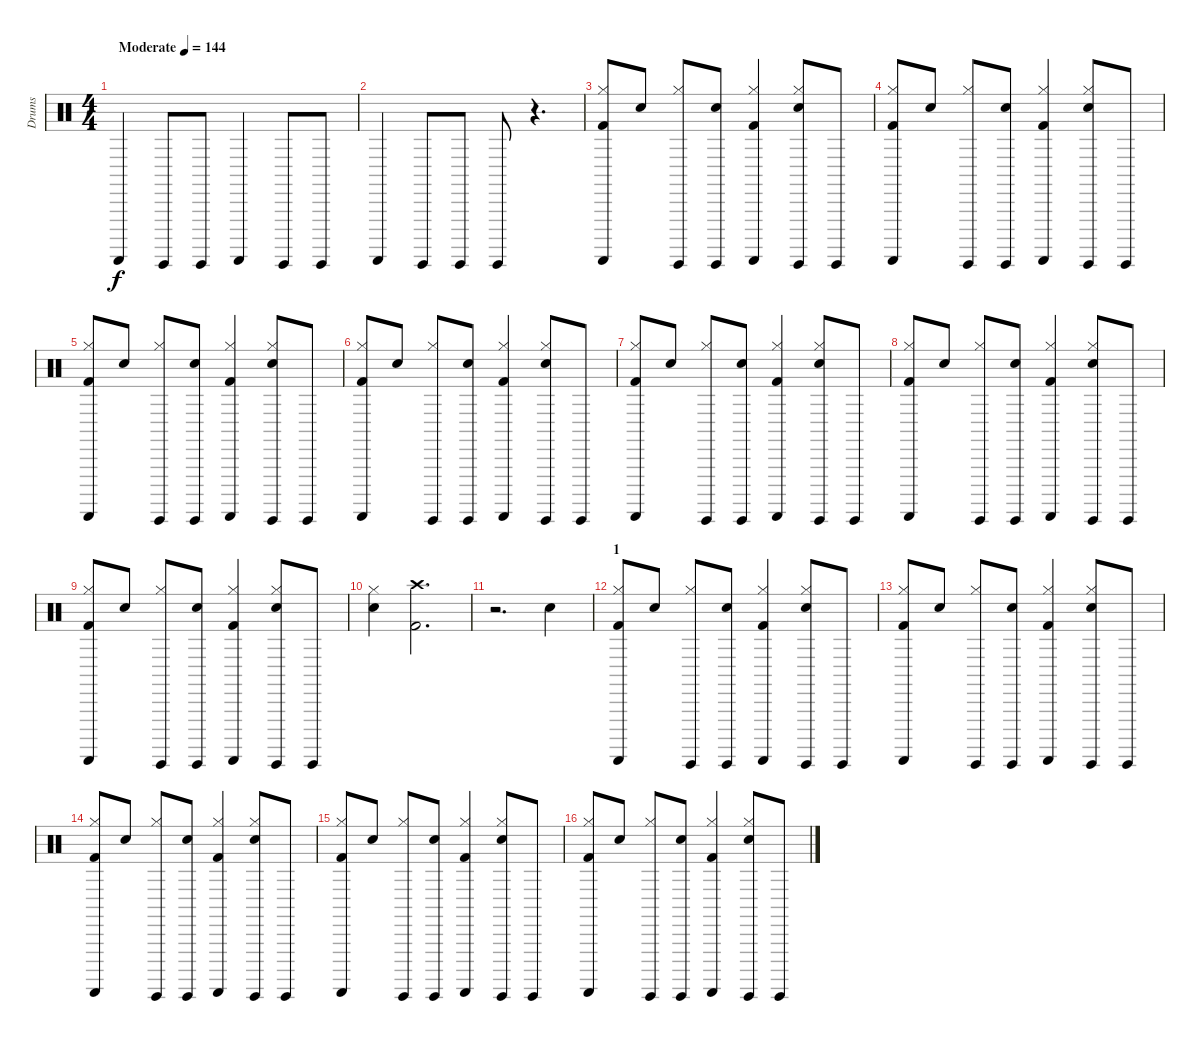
\track ("Drums" "Drums") {instrument percussion}
\staff {score}
\articulation defaults
\ts (4 4)
\tempo (144 "Moderate")
\clef neutral
\ks c "Guiro (scrap-return)".4{dy f} "Guiro (hit)".8 "Guiro (hit)".8 "Guiro (scrap-return)".4 "Guiro (hit)".8 "Guiro (hit)".8
|
"Guiro (scrap-return)".4 "Guiro (hit)".8 "Guiro (hit)".8 "Guiro (hit)".8 r.4{d} |
("Kick (hit) 2" "Guiro (scrap-return)" "Hi-Hat (closed)").8 "Electric Snare (hit)".8 ("Hi-Hat (closed)" "Guiro (hit)").8 ("Electric Snare (hit)" "Guiro (hit)").8 ("Hi-Hat (closed)" "Guiro (scrap-return)" "Kick (hit) 2").4 ("Guiro (hit)" "Electric Snare (hit)" "Hi-Hat (closed)").8 "Guiro (hit)".8 |
("Kick (hit) 2" "Guiro (scrap-return)" "Hi-Hat (closed)").8 "Electric Snare (hit)".8 ("Hi-Hat (closed)" "Guiro (hit)").8 ("Electric Snare (hit)" "Guiro (hit)").8 ("Hi-Hat (closed)" "Guiro (scrap-return)" "Kick (hit) 2").4 ("Guiro (hit)" "Electric Snare (hit)" "Hi-Hat (closed)").8 "Guiro (hit)".8 |
("Kick (hit) 2" "Guiro (scrap-return)" "Hi-Hat (closed)").8 "Electric Snare (hit)".8 ("Hi-Hat (closed)" "Guiro (hit)").8 ("Electric Snare (hit)" "Guiro (hit)").8 ("Hi-Hat (closed)" "Guiro (scrap-return)" "Kick (hit) 2").4 ("Guiro (hit)" "Electric Snare (hit)" "Hi-Hat (closed)").8 "Guiro (hit)".8 |
("Kick (hit) 2" "Guiro (scrap-return)" "Hi-Hat (closed)").8 "Electric Snare (hit)".8 ("Hi-Hat (closed)" "Guiro (hit)").8 ("Electric Snare (hit)" "Guiro (hit)").8 ("Hi-Hat (closed)" "Guiro (scrap-return)" "Kick (hit) 2").4 ("Guiro (hit)" "Electric Snare (hit)" "Hi-Hat (closed)").8 "Guiro (hit)".8 |
("Kick (hit) 2" "Guiro (scrap-return)" "Hi-Hat (closed)").8 "Electric Snare (hit)".8 ("Hi-Hat (closed)" "Guiro (hit)").8 ("Electric Snare (hit)" "Guiro (hit)").8 ("Hi-Hat (closed)" "Guiro (scrap-return)" "Kick (hit) 2").4 ("Guiro (hit)" "Electric Snare (hit)" "Hi-Hat (closed)").8 "Guiro (hit)".8 |
("Kick (hit) 2" "Guiro (scrap-return)" "Hi-Hat (closed)").8 "Electric Snare (hit)".8 ("Hi-Hat (closed)" "Guiro (hit)").8 ("Electric Snare (hit)" "Guiro (hit)").8 ("Hi-Hat (closed)" "Guiro (scrap-return)" "Kick (hit) 2").4 ("Guiro (hit)" "Electric Snare (hit)" "Hi-Hat (closed)").8 "Guiro (hit)".8 |
("Kick (hit) 2" "Guiro (scrap-return)" "Hi-Hat (closed)").8 "Electric Snare (hit)".8 ("Hi-Hat (closed)" "Guiro (hit)").8 ("Electric Snare (hit)" "Guiro (hit)").8 ("Hi-Hat (closed)" "Guiro (scrap-return)" "Kick (hit) 2").4 ("Guiro (hit)" "Electric Snare (hit)" "Hi-Hat (closed)").8 "Guiro (hit)".8 |
("Electric Snare (hit)" "Hi-Hat (closed)").4 ("Kick (hit) 2" "Crash high (hit)").2{d} |
r.2{d} "Electric Snare (hit)".4 |
\section ("" "1")
("Kick (hit) 2" "Guiro (scrap-return)" "Hi-Hat (closed)").8 "Electric Snare (hit)".8 ("Hi-Hat (closed)" "Guiro (hit)").8 ("Electric Snare (hit)" "Guiro (hit)").8 ("Hi-Hat (closed)" "Guiro (scrap-return)" "Kick (hit) 2").4 ("Guiro (hit)" "Electric Snare (hit)" "Hi-Hat (closed)").8 "Guiro (hit)".8 |
("Kick (hit) 2" "Guiro (scrap-return)" "Hi-Hat (closed)").8 "Electric Snare (hit)".8 ("Hi-Hat (closed)" "Guiro (hit)").8 ("Electric Snare (hit)" "Guiro (hit)").8 ("Hi-Hat (closed)" "Guiro (scrap-return)" "Kick (hit) 2").4 ("Guiro (hit)" "Electric Snare (hit)" "Hi-Hat (closed)").8 "Guiro (hit)".8 |
("Kick (hit) 2" "Guiro (scrap-return)" "Hi-Hat (closed)").8 "Electric Snare (hit)".8 ("Hi-Hat (closed)" "Guiro (hit)").8 ("Electric Snare (hit)" "Guiro (hit)").8 ("Hi-Hat (closed)" "Guiro (scrap-return)" "Kick (hit) 2").4 ("Guiro (hit)" "Electric Snare (hit)" "Hi-Hat (closed)").8 "Guiro (hit)".8 |
("Kick (hit) 2" "Guiro (scrap-return)" "Hi-Hat (closed)").8 "Electric Snare (hit)".8 ("Hi-Hat (closed)" "Guiro (hit)").8 ("Electric Snare (hit)" "Guiro (hit)").8 ("Hi-Hat (closed)" "Guiro (scrap-return)" "Kick (hit) 2").4 ("Guiro (hit)" "Electric Snare (hit)" "Hi-Hat (closed)").8 "Guiro (hit)".8 |
("Kick (hit) 2" "Guiro (scrap-return)" "Hi-Hat (closed)").8 "Electric Snare (hit)".8 ("Hi-Hat (closed)" "Guiro (hit)").8 ("Electric Snare (hit)" "Guiro (hit)").8 ("Hi-Hat (closed)" "Guiro (scrap-return)" "Kick (hit) 2").4 ("Guiro (hit)" "Electric Snare (hit)" "Hi-Hat (closed)").8 "Guiro (hit)".8
